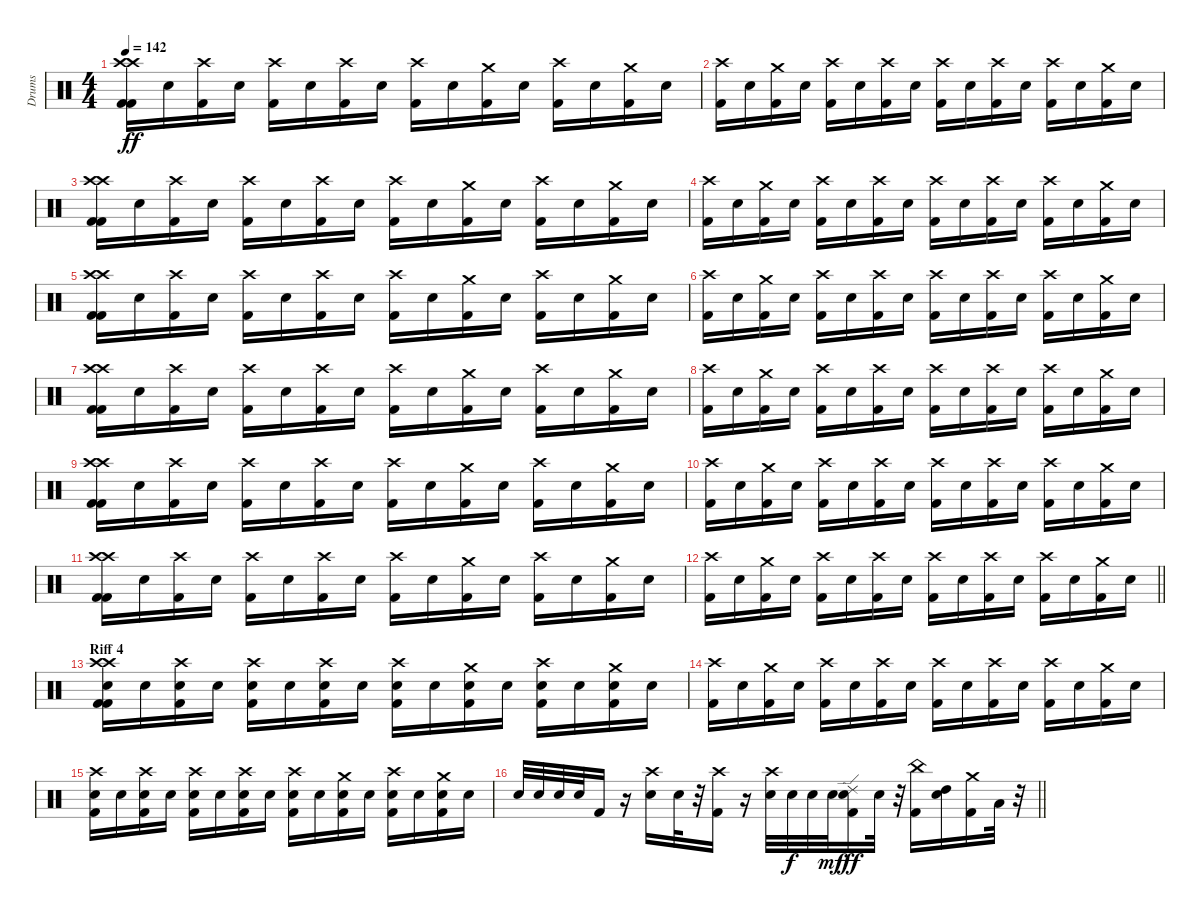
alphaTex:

\track ("Drums" "Drums") {instrument percussion}
\staff {score}
\articulation defaults
\ts (4 4)
\tempo 142
\clef neutral
\ks c
("Crash high (hit)" "Kick (hit) 2" "Crash high (hit)" "Kick (hit) 2").16{dy ff} "Snare (hit) 2".16 ("Crash high (hit)" "Kick (hit) 2").16 "Snare (hit) 2".16 ("Crash high (hit)" "Kick (hit) 2").16 "Snare (hit) 2".16 ("Crash high (hit)" "Kick (hit) 2").16 "Snare (hit) 2".16 ("Crash high (hit)" "Kick (hit) 2").16 "Snare (hit) 2".16 ("Crash medium (hit)" "Kick (hit) 2").16 "Snare (hit) 2".16 ("Crash high (hit)" "Kick (hit) 2").16 "Snare (hit) 2".16 ("Crash medium (hit)" "Kick (hit) 2").16 "Snare (hit) 2".16 |
("Crash high (hit)" "Kick (hit) 2").16 "Snare (hit) 2".16 ("Crash medium (hit)" "Kick (hit) 2").16 "Snare (hit) 2".16 ("Crash high (hit)" "Kick (hit) 2").16 "Snare (hit) 2".16 ("Crash high (hit)" "Kick (hit) 2").16 "Snare (hit) 2".16 ("Crash high (hit)" "Kick (hit) 2").16 "Snare (hit) 2".16 ("Crash high (hit)" "Kick (hit) 2").16 "Snare (hit) 2".16 ("Crash high (hit)" "Kick (hit) 2").16 "Snare (hit) 2".16 ("Crash medium (hit)" "Kick (hit) 2").16 "Snare (hit) 2".16 |
("Crash high (hit)" "Kick (hit) 2" "Crash high (hit)" "Kick (hit) 2").16 "Snare (hit) 2".16 ("Crash high (hit)" "Kick (hit) 2").16 "Snare (hit) 2".16 ("Crash high (hit)" "Kick (hit) 2").16 "Snare (hit) 2".16 ("Crash high (hit)" "Kick (hit) 2").16 "Snare (hit) 2".16 ("Crash high (hit)" "Kick (hit) 2").16 "Snare (hit) 2".16 ("Crash medium (hit)" "Kick (hit) 2").16 "Snare (hit) 2".16 ("Crash high (hit)" "Kick (hit) 2").16 "Snare (hit) 2".16 ("Crash medium (hit)" "Kick (hit) 2").16 "Snare (hit) 2".16 |
("Crash high (hit)" "Kick (hit) 2").16 "Snare (hit) 2".16 ("Crash medium (hit)" "Kick (hit) 2").16 "Snare (hit) 2".16 ("Crash high (hit)" "Kick (hit) 2").16 "Snare (hit) 2".16 ("Crash high (hit)" "Kick (hit) 2").16 "Snare (hit) 2".16 ("Crash high (hit)" "Kick (hit) 2").16 "Snare (hit) 2".16 ("Crash high (hit)" "Kick (hit) 2").16 "Snare (hit) 2".16 ("Crash high (hit)" "Kick (hit) 2").16 "Snare (hit) 2".16 ("Crash medium (hit)" "Kick (hit) 2").16 "Snare (hit) 2".16 |
("Crash high (hit)" "Kick (hit) 2" "Crash high (hit)" "Kick (hit) 2").16 "Snare (hit) 2".16 ("Crash high (hit)" "Kick (hit) 2").16 "Snare (hit) 2".16 ("Crash high (hit)" "Kick (hit) 2").16 "Snare (hit) 2".16 ("Crash high (hit)" "Kick (hit) 2").16 "Snare (hit) 2".16 ("Crash high (hit)" "Kick (hit) 2").16 "Snare (hit) 2".16 ("Crash medium (hit)" "Kick (hit) 2").16 "Snare (hit) 2".16 ("Crash high (hit)" "Kick (hit) 2").16 "Snare (hit) 2".16 ("Crash medium (hit)" "Kick (hit) 2").16 "Snare (hit) 2".16 |
("Crash high (hit)" "Kick (hit) 2").16 "Snare (hit) 2".16 ("Crash medium (hit)" "Kick (hit) 2").16 "Snare (hit) 2".16 ("Crash high (hit)" "Kick (hit) 2").16 "Snare (hit) 2".16 ("Crash high (hit)" "Kick (hit) 2").16 "Snare (hit) 2".16 ("Crash high (hit)" "Kick (hit) 2").16 "Snare (hit) 2".16 ("Crash high (hit)" "Kick (hit) 2").16 "Snare (hit) 2".16 ("Crash high (hit)" "Kick (hit) 2").16 "Snare (hit) 2".16 ("Crash medium (hit)" "Kick (hit) 2").16 "Snare (hit) 2".16 |
("Crash high (hit)" "Kick (hit) 2" "Crash high (hit)" "Kick (hit) 2").16 "Snare (hit) 2".16 ("Crash high (hit)" "Kick (hit) 2").16 "Snare (hit) 2".16 ("Crash high (hit)" "Kick (hit) 2").16 "Snare (hit) 2".16 ("Crash high (hit)" "Kick (hit) 2").16 "Snare (hit) 2".16 ("Crash high (hit)" "Kick (hit) 2").16 "Snare (hit) 2".16 ("Crash medium (hit)" "Kick (hit) 2").16 "Snare (hit) 2".16 ("Crash high (hit)" "Kick (hit) 2").16 "Snare (hit) 2".16 ("Crash medium (hit)" "Kick (hit) 2").16 "Snare (hit) 2".16 |
("Crash high (hit)" "Kick (hit) 2").16 "Snare (hit) 2".16 ("Crash medium (hit)" "Kick (hit) 2").16 "Snare (hit) 2".16 ("Crash high (hit)" "Kick (hit) 2").16 "Snare (hit) 2".16 ("Crash high (hit)" "Kick (hit) 2").16 "Snare (hit) 2".16 ("Crash high (hit)" "Kick (hit) 2").16 "Snare (hit) 2".16 ("Crash high (hit)" "Kick (hit) 2").16 "Snare (hit) 2".16 ("Crash high (hit)" "Kick (hit) 2").16 "Snare (hit) 2".16 ("Crash medium (hit)" "Kick (hit) 2").16 "Snare (hit) 2".16 |
("Crash high (hit)" "Kick (hit) 2" "Crash high (hit)" "Kick (hit) 2").16 "Snare (hit) 2".16 ("Crash high (hit)" "Kick (hit) 2").16 "Snare (hit) 2".16 ("Crash high (hit)" "Kick (hit) 2").16 "Snare (hit) 2".16 ("Crash high (hit)" "Kick (hit) 2").16 "Snare (hit) 2".16 ("Crash high (hit)" "Kick (hit) 2").16 "Snare (hit) 2".16 ("Crash medium (hit)" "Kick (hit) 2").16 "Snare (hit) 2".16 ("Crash high (hit)" "Kick (hit) 2").16 "Snare (hit) 2".16 ("Crash medium (hit)" "Kick (hit) 2").16 "Snare (hit) 2".16 |
("Crash high (hit)" "Kick (hit) 2").16 "Snare (hit) 2".16 ("Crash medium (hit)" "Kick (hit) 2").16 "Snare (hit) 2".16 ("Crash high (hit)" "Kick (hit) 2").16 "Snare (hit) 2".16 ("Crash high (hit)" "Kick (hit) 2").16 "Snare (hit) 2".16 ("Crash high (hit)" "Kick (hit) 2").16 "Snare (hit) 2".16 ("Crash high (hit)" "Kick (hit) 2").16 "Snare (hit) 2".16 ("Crash high (hit)" "Kick (hit) 2").16 "Snare (hit) 2".16 ("Crash medium (hit)" "Kick (hit) 2").16 "Snare (hit) 2".16 |
("Crash high (hit)" "Kick (hit) 2" "Crash high (hit)" "Kick (hit) 2").16 "Snare (hit) 2".16 ("Crash high (hit)" "Kick (hit) 2").16 "Snare (hit) 2".16 ("Crash high (hit)" "Kick (hit) 2").16 "Snare (hit) 2".16 ("Crash high (hit)" "Kick (hit) 2").16 "Snare (hit) 2".16 ("Crash high (hit)" "Kick (hit) 2").16 "Snare (hit) 2".16 ("Crash medium (hit)" "Kick (hit) 2").16 "Snare (hit) 2".16 ("Crash high (hit)" "Kick (hit) 2").16 "Snare (hit) 2".16 ("Crash medium (hit)" "Kick (hit) 2").16 "Snare (hit) 2".16 |
\barLineRight lightlight
("Crash high (hit)" "Kick (hit) 2").16 "Snare (hit) 2".16 ("Crash medium (hit)" "Kick (hit) 2").16 "Snare (hit) 2".16 ("Crash high (hit)" "Kick (hit) 2").16 "Snare (hit) 2".16 ("Crash high (hit)" "Kick (hit) 2").16 "Snare (hit) 2".16 ("Crash high (hit)" "Kick (hit) 2").16 "Snare (hit) 2".16 ("Crash high (hit)" "Kick (hit) 2").16 "Snare (hit) 2".16 ("Crash high (hit)" "Kick (hit) 2").16 "Snare (hit) 2".16 ("Crash medium (hit)" "Kick (hit) 2").16 "Snare (hit) 2".16 |
\section ("" "Riff 4")
("Crash high (hit)" "Kick (hit) 2" "Crash high (hit)" "Kick (hit) 2" "Snare (hit) 2").16 "Snare (hit) 2".16 ("Crash high (hit)" "Kick (hit) 2" "Snare (hit) 2").16 "Snare (hit) 2".16 ("Crash high (hit)" "Kick (hit) 2" "Snare (hit) 2").16 "Snare (hit) 2".16 ("Crash high (hit)" "Kick (hit) 2" "Snare (hit) 2").16 "Snare (hit) 2".16 ("Crash high (hit)" "Kick (hit) 2" "Snare (hit) 2").16 "Snare (hit) 2".16 ("Crash medium (hit)" "Kick (hit) 2" "Snare (hit) 2").16 "Snare (hit) 2".16 ("Crash high (hit)" "Kick (hit) 2" "Snare (hit) 2").16 "Snare (hit) 2".16 ("Crash medium (hit)" "Kick (hit) 2" "Snare (hit) 2").16 "Snare (hit) 2".16 |
("Crash high (hit)" "Kick (hit) 2").16 "Snare (hit) 2".16 ("Crash medium (hit)" "Kick (hit) 2").16 "Snare (hit) 2".16 ("Crash high (hit)" "Kick (hit) 2").16 "Snare (hit) 2".16 ("Crash high (hit)" "Kick (hit) 2").16 "Snare (hit) 2".16 ("Crash high (hit)" "Kick (hit) 2").16 "Snare (hit) 2".16 ("Crash high (hit)" "Kick (hit) 2").16 "Snare (hit) 2".16 ("Crash high (hit)" "Kick (hit) 2").16 "Snare (hit) 2".16 ("Crash medium (hit)" "Kick (hit) 2").16 "Snare (hit) 2".16 |
("Crash high (hit)" "Kick (hit) 2" "Snare (hit) 2").16 "Snare (hit) 2".16 ("Crash high (hit)" "Kick (hit) 2" "Snare (hit) 2").16 "Snare (hit) 2".16 ("Crash high (hit)" "Kick (hit) 2" "Snare (hit) 2").16 "Snare (hit) 2".16 ("Crash high (hit)" "Kick (hit) 2" "Snare (hit) 2").16 "Snare (hit) 2".16 ("Crash high (hit)" "Kick (hit) 2" "Snare (hit) 2").16 "Snare (hit) 2".16 ("Crash medium (hit)" "Kick (hit) 2" "Snare (hit) 2").16 "Snare (hit) 2".16 ("Crash high (hit)" "Kick (hit) 2" "Snare (hit) 2").16 "Snare (hit) 2".16 ("Crash medium (hit)" "Kick (hit) 2" "Snare (hit) 2").16 "Snare (hit) 2".16 |
\barLineRight lightlight "Snare (hit) 2".32 "Snare (hit) 2".32 "Snare (hit) 2".32 "Snare (hit) 2".32 "Kick (hit) 2".16
r.16 ("Crash high (hit)" "Snare (hit) 2").16 "Snare (hit) 2".32 r.32 ("Crash high (hit)" "Kick (hit) 2").16 r.16 ("Crash high (hit)" "Snare (hit) 2").32 "Snare (hit) 2".32{dy f} "Snare (hit) 2".32 "Snare (hit) 2".32{dy mf} ("Kick (hit) 2" "Snare (hit) 2" "Ride (edge) 2").16{dy ff} "Snare (hit) 2".32 r.32 ("China (hit)" "Kick (hit) 2").16 ("Snare (hit) 2" "High Tom (hit)").16 ("Crash medium (hit)" "Kick (hit) 2").16 "Low Tom (hit)".32 r.32
